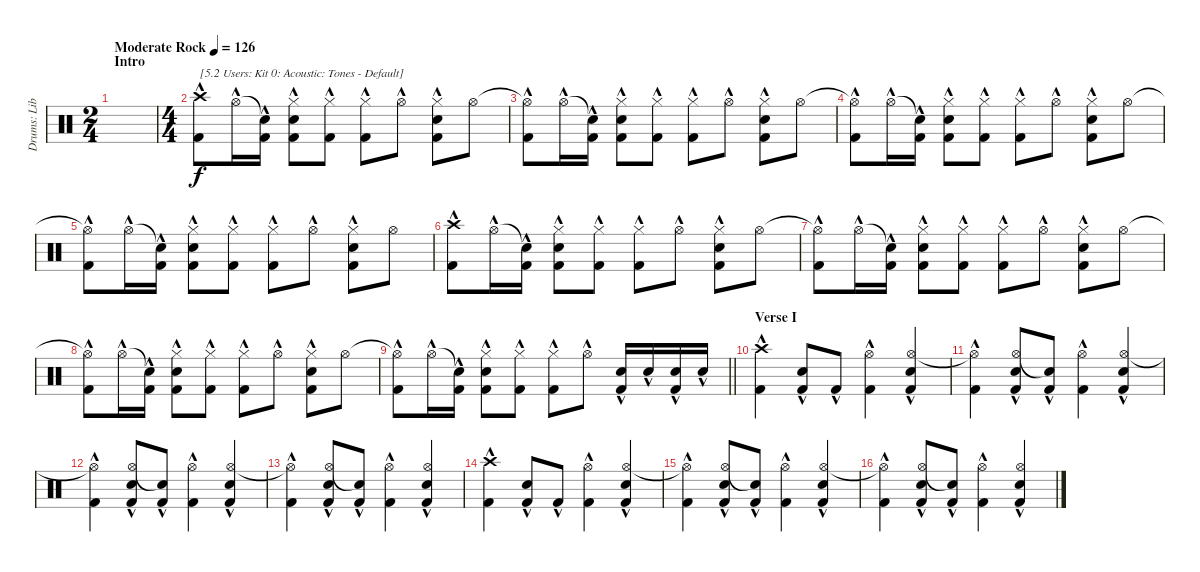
\track ("Drums: Liberty" "Drums: Lib") {instrument percussion}
\staff {score}
\articulation defaults
\ts (2 4)
\section ("" "Intro")
\tempo (126 "Moderate Rock")
\clef neutral
\ks c
|
\ts (4 4)
("Crash high (hit)"{hac} "Kick (hit) 2"{hac}).8{txt "[5.2 Users: Kit 0: Acoustic: Tones - Default]"} "Hi-Hat (open)"{hac}.16 ("Snare (hit)"{t} "Kick (hit) 2"{hac}).16 ("Hi-Hat (closed)"{hac} "Snare (hit) 2"{hac} "Kick (hit) 2"{hac}).8 ("Hi-Hat (closed)"{hac} "Kick (hit) 2"{hac}).8 ("Hi-Hat (closed)"{hac} "Kick (hit) 2"{hac}).8 "Hi-Hat (open)"{hac}.8 ("Hi-Hat (closed)"{hac} "Snare (hit) 2"{hac} "Kick (hit) 2"{hac}).8 "Hi-Hat (open)".8 |
("Hi-Hat (open)"{t} "Kick (hit) 2"{hac}).8 "Hi-Hat (open)"{hac}.16 ("Snare (hit)"{t} "Kick (hit) 2"{hac}).16 ("Hi-Hat (closed)"{hac} "Snare (hit) 2"{hac} "Kick (hit) 2"{hac}).8 ("Hi-Hat (closed)"{hac} "Kick (hit) 2"{hac}).8 ("Hi-Hat (closed)"{hac} "Kick (hit) 2"{hac}).8 "Hi-Hat (open)"{hac}.8 ("Hi-Hat (closed)"{hac} "Snare (hit) 2"{hac} "Kick (hit) 2"{hac}).8 "Hi-Hat (open)".8 |
("Hi-Hat (open)"{t} "Kick (hit) 2"{hac}).8 "Hi-Hat (open)"{hac}.16 ("Snare (hit)"{t} "Kick (hit) 2"{hac}).16 ("Hi-Hat (closed)"{hac} "Snare (hit) 2"{hac} "Kick (hit) 2"{hac}).8 ("Hi-Hat (closed)"{hac} "Kick (hit) 2"{hac}).8 ("Hi-Hat (closed)"{hac} "Kick (hit) 2"{hac}).8 "Hi-Hat (open)"{hac}.8 ("Hi-Hat (closed)"{hac} "Snare (hit) 2"{hac} "Kick (hit) 2"{hac}).8 "Hi-Hat (open)".8 |
("Hi-Hat (open)"{t} "Kick (hit) 2"{hac}).8 "Hi-Hat (open)"{hac}.16 ("Snare (hit)"{t} "Kick (hit) 2"{hac}).16 ("Hi-Hat (closed)"{hac} "Snare (hit) 2"{hac} "Kick (hit) 2"{hac}).8 ("Hi-Hat (closed)"{hac} "Kick (hit) 2"{hac}).8 ("Hi-Hat (closed)"{hac} "Kick (hit) 2"{hac}).8 "Hi-Hat (open)"{hac}.8 ("Hi-Hat (closed)"{hac} "Snare (hit) 2"{hac} "Kick (hit) 2"{hac}).8 "Hi-Hat (open)".8 |
("Crash high (hit)"{hac} "Kick (hit) 2"{hac}).8 "Hi-Hat (open)"{hac}.16 ("Snare (hit)"{t} "Kick (hit) 2"{hac}).16 ("Hi-Hat (closed)"{hac} "Snare (hit) 2"{hac} "Kick (hit) 2"{hac}).8 ("Hi-Hat (closed)"{hac} "Kick (hit) 2"{hac}).8 ("Hi-Hat (closed)"{hac} "Kick (hit) 2"{hac}).8 "Hi-Hat (open)"{hac}.8 ("Hi-Hat (closed)"{hac} "Snare (hit) 2"{hac} "Kick (hit) 2"{hac}).8 "Hi-Hat (open)".8 |
("Hi-Hat (open)"{t} "Kick (hit) 2"{hac}).8 "Hi-Hat (open)"{hac}.16 ("Snare (hit)"{t} "Kick (hit) 2"{hac}).16 ("Hi-Hat (closed)"{hac} "Snare (hit) 2"{hac} "Kick (hit) 2"{hac}).8 ("Hi-Hat (closed)"{hac} "Kick (hit) 2"{hac}).8 ("Hi-Hat (closed)"{hac} "Kick (hit) 2"{hac}).8 "Hi-Hat (open)"{hac}.8 ("Hi-Hat (closed)"{hac} "Snare (hit) 2"{hac} "Kick (hit) 2"{hac}).8 "Hi-Hat (open)".8 |
("Hi-Hat (open)"{t} "Kick (hit) 2"{hac}).8 "Hi-Hat (open)"{hac}.16 ("Snare (hit)"{t} "Kick (hit) 2"{hac}).16 ("Hi-Hat (closed)"{hac} "Snare (hit) 2"{hac} "Kick (hit) 2"{hac}).8 ("Hi-Hat (closed)"{hac} "Kick (hit) 2"{hac}).8 ("Hi-Hat (closed)"{hac} "Kick (hit) 2"{hac}).8 "Hi-Hat (open)"{hac}.8 ("Hi-Hat (closed)"{hac} "Snare (hit) 2"{hac} "Kick (hit) 2"{hac}).8 "Hi-Hat (open)".8 |
\barLineRight lightlight
("Hi-Hat (open)"{t} "Kick (hit) 2"{hac}).8 "Hi-Hat (open)"{hac}.16 ("Snare (hit)"{t} "Kick (hit) 2"{hac}).16 ("Hi-Hat (closed)"{hac} "Snare (hit) 2"{hac} "Kick (hit) 2"{hac}).8 ("Hi-Hat (closed)"{hac} "Kick (hit) 2"{hac}).8 ("Hi-Hat (closed)"{hac} "Kick (hit) 2"{hac}).8 "Hi-Hat (open)"{hac}.8 ("Snare (hit) 2"{hac} "Kick (hit) 2"{hac}).16 "Snare (hit) 2"{hac}.16 ("Snare (hit) 2"{hac} "Kick (hit) 2"{hac}).16 "Snare (hit) 2"{hac}.16 |
\section ("" "Verse I")
("Crash high (hit)"{hac} "Kick (hit) 2"{hac}).4 ("Snare (hit) 2"{hac} "Kick (hit) 2"{hac}).8 "Kick (hit) 2"{hac}.8 ("Hi-Hat (open)"{hac} "Kick (hit) 2"{hac}).4 ("Hi-Hat (open)"{hac} "Snare (hit) 2"{hac} "Kick (hit) 2"{hac}).4 |
("Hi-Hat (open)"{t} "Kick (hit) 2"{hac}).4 ("Hi-Hat (open)" "Snare (hit) 2"{hac} "Kick (hit) 2"{hac}).8 ("Snare (hit)"{t} "Kick (hit) 2"{hac}).8 ("Hi-Hat (open)"{hac} "Kick (hit) 2"{hac}).4 ("Hi-Hat (open)"{hac} "Snare (hit) 2"{hac} "Kick (hit) 2"{hac}).4 |
("Hi-Hat (open)"{t} "Kick (hit) 2"{hac}).4 ("Hi-Hat (open)" "Snare (hit) 2"{hac} "Kick (hit) 2"{hac}).8 ("Snare (hit)"{t} "Kick (hit) 2"{hac}).8 ("Hi-Hat (open)"{hac} "Kick (hit) 2"{hac}).4 ("Hi-Hat (open)"{hac} "Snare (hit) 2"{hac} "Kick (hit) 2"{hac}).4 |
("Hi-Hat (open)"{t} "Kick (hit) 2"{hac}).4 ("Hi-Hat (open)" "Snare (hit) 2"{hac} "Kick (hit) 2"{hac}).8 ("Snare (hit)"{t} "Kick (hit) 2"{hac}).8 ("Hi-Hat (open)"{hac} "Kick (hit) 2"{hac}).4 ("Hi-Hat (open)"{hac} "Snare (hit) 2"{hac} "Kick (hit) 2"{hac}).4 |
("Crash high (hit)"{hac} "Kick (hit) 2"{hac}).4 ("Snare (hit) 2"{hac} "Kick (hit) 2"{hac}).8 "Kick (hit) 2"{hac}.8 ("Hi-Hat (open)"{hac} "Kick (hit) 2"{hac}).4 ("Hi-Hat (open)"{hac} "Snare (hit) 2"{hac} "Kick (hit) 2"{hac}).4 |
("Hi-Hat (open)"{t} "Kick (hit) 2"{hac}).4 ("Hi-Hat (open)" "Snare (hit) 2"{hac} "Kick (hit) 2"{hac}).8 ("Snare (hit)"{t} "Kick (hit) 2"{hac}).8 ("Hi-Hat (open)"{hac} "Kick (hit) 2"{hac}).4 ("Hi-Hat (open)"{hac} "Snare (hit) 2"{hac} "Kick (hit) 2"{hac}).4 |
("Hi-Hat (open)"{t} "Kick (hit) 2"{hac}).4 ("Hi-Hat (open)" "Snare (hit) 2"{hac} "Kick (hit) 2"{hac}).8 ("Snare (hit)"{t} "Kick (hit) 2"{hac}).8 ("Hi-Hat (open)"{hac} "Kick (hit) 2"{hac}).4 ("Hi-Hat (open)"{hac} "Snare (hit) 2"{hac} "Kick (hit) 2"{hac}).4
